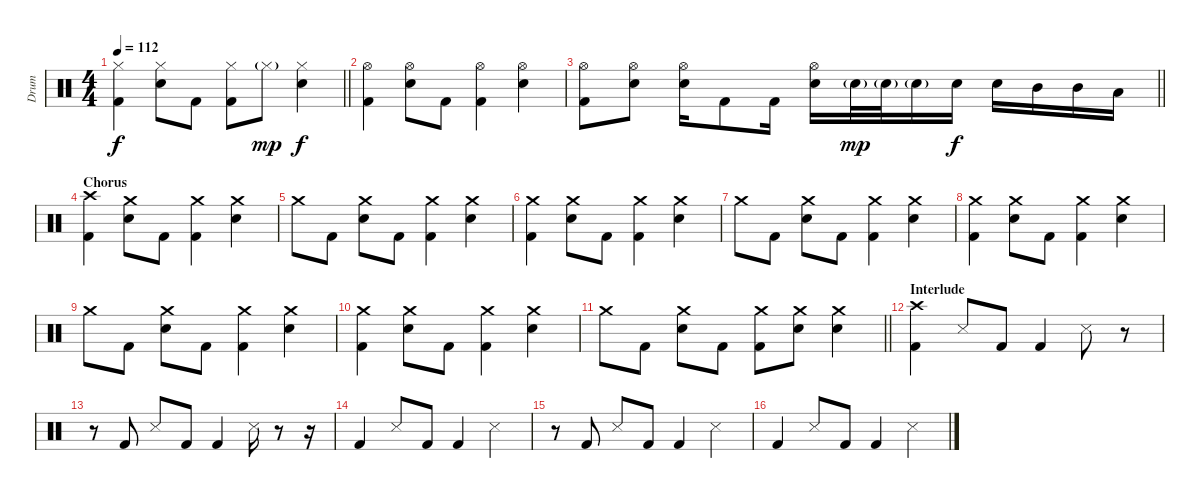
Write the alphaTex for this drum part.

\track ("Drum" "Drum") {instrument percussion}
\staff {score}
\articulation defaults
\ts (4 4)
\tempo 112
\clef neutral
\barLineRight lightlight
\ks c
("Hi-Hat (closed)" "Kick (hit) 2").4{dy f} ("Hi-Hat (closed)" "Electric Snare (hit)").8 "Kick (hit) 2".8 ("Hi-Hat (closed)" "Kick (hit) 2").8 "Hi-Hat (closed)"{g}.8{dy mp} ("Hi-Hat (closed)" "Electric Snare (hit)").4{dy f} |
("Hi-Hat (open)" "Kick (hit) 2").4 ("Hi-Hat (open)" "Electric Snare (hit)").8 "Kick (hit) 2".8 ("Hi-Hat (open)" "Kick (hit) 2").4 ("Hi-Hat (open)" "Electric Snare (hit)").4 |
\barLineRight lightlight
("Hi-Hat (open)" "Kick (hit) 2").8 ("Hi-Hat (open)" "Electric Snare (hit)").8 ("Hi-Hat (open)" "Electric Snare (hit)").16 "Kick (hit) 2".8 "Kick (hit) 2".16 ("Hi-Hat (open)" "Electric Snare (hit)").16 "Electric Snare (hit)"{g}.32{dy mp} "Electric Snare (hit)"{g}.32 "Electric Snare (hit)"{g}.16 "Electric Snare (hit)".16{dy f} "Electric Snare (hit)".16 "Mid Tom (hit)".16 "Mid Tom (hit)".16 "Low Tom (hit)".16 |
\section ("" "Chorus")
("Crash high (hit)" "Kick (hit) 2").4 ("Crash medium (hit)" "Electric Snare (hit)").8 "Kick (hit) 2".8 ("Crash medium (hit)" "Kick (hit) 2").4 ("Crash medium (hit)" "Electric Snare (hit)").4 |
"Crash medium (hit)".8 "Kick (hit) 2".8 ("Crash medium (hit)" "Electric Snare (hit)").8 "Kick (hit) 2".8 ("Crash medium (hit)" "Kick (hit) 2").4 ("Crash medium (hit)" "Electric Snare (hit)").4 |
("Crash medium (hit)" "Kick (hit) 2").4 ("Crash medium (hit)" "Electric Snare (hit)").8 "Kick (hit) 2".8 ("Crash medium (hit)" "Kick (hit) 2").4 ("Crash medium (hit)" "Electric Snare (hit)").4 |
"Crash medium (hit)".8 "Kick (hit) 2".8 ("Crash medium (hit)" "Electric Snare (hit)").8 "Kick (hit) 2".8 ("Crash medium (hit)" "Kick (hit) 2").4 ("Crash medium (hit)" "Electric Snare (hit)").4 |
("Crash medium (hit)" "Kick (hit) 2").4 ("Crash medium (hit)" "Electric Snare (hit)").8 "Kick (hit) 2".8 ("Crash medium (hit)" "Kick (hit) 2").4 ("Crash medium (hit)" "Electric Snare (hit)").4 |
"Crash medium (hit)".8 "Kick (hit) 2".8 ("Crash medium (hit)" "Electric Snare (hit)").8 "Kick (hit) 2".8 ("Crash medium (hit)" "Kick (hit) 2").4 ("Crash medium (hit)" "Electric Snare (hit)").4 |
("Crash medium (hit)" "Kick (hit) 2").4 ("Crash medium (hit)" "Electric Snare (hit)").8 "Kick (hit) 2".8 ("Crash medium (hit)" "Kick (hit) 2").4 ("Crash medium (hit)" "Electric Snare (hit)").4 |
\barLineRight lightlight "Crash medium (hit)".8 "Kick (hit) 2".8
("Crash medium (hit)" "Electric Snare (hit)").8 "Kick (hit) 2".8 ("Crash medium (hit)" "Kick (hit) 2").8 ("Crash medium (hit)" "Electric Snare (hit)").8 ("Crash medium (hit)" "Electric Snare (hit)").4 |
\section ("" "Interlude")
("Crash high (hit)" "Kick (hit) 2").4 "Snare (side stick) 3".8 "Kick (hit) 2".8 "Kick (hit) 2".4 "Snare (side stick) 3".8 r.8 |
r.8 "Kick (hit) 2".8 "Snare (side stick) 3".8 "Kick (hit) 2".8 "Kick (hit) 2".4 "Snare (side stick) 3".16 r.8 r.16 |
"Kick (hit) 2".4 "Snare (side stick) 3".8 "Kick (hit) 2".8 "Kick (hit) 2".4 "Snare (side stick) 3".4 |
r.8 "Kick (hit) 2".8 "Snare (side stick) 3".8 "Kick (hit) 2".8 "Kick (hit) 2".4 "Snare (side stick) 3".4 |
"Kick (hit) 2".4 "Snare (side stick) 3".8 "Kick (hit) 2".8 "Kick (hit) 2".4 "Snare (side stick) 3".4
